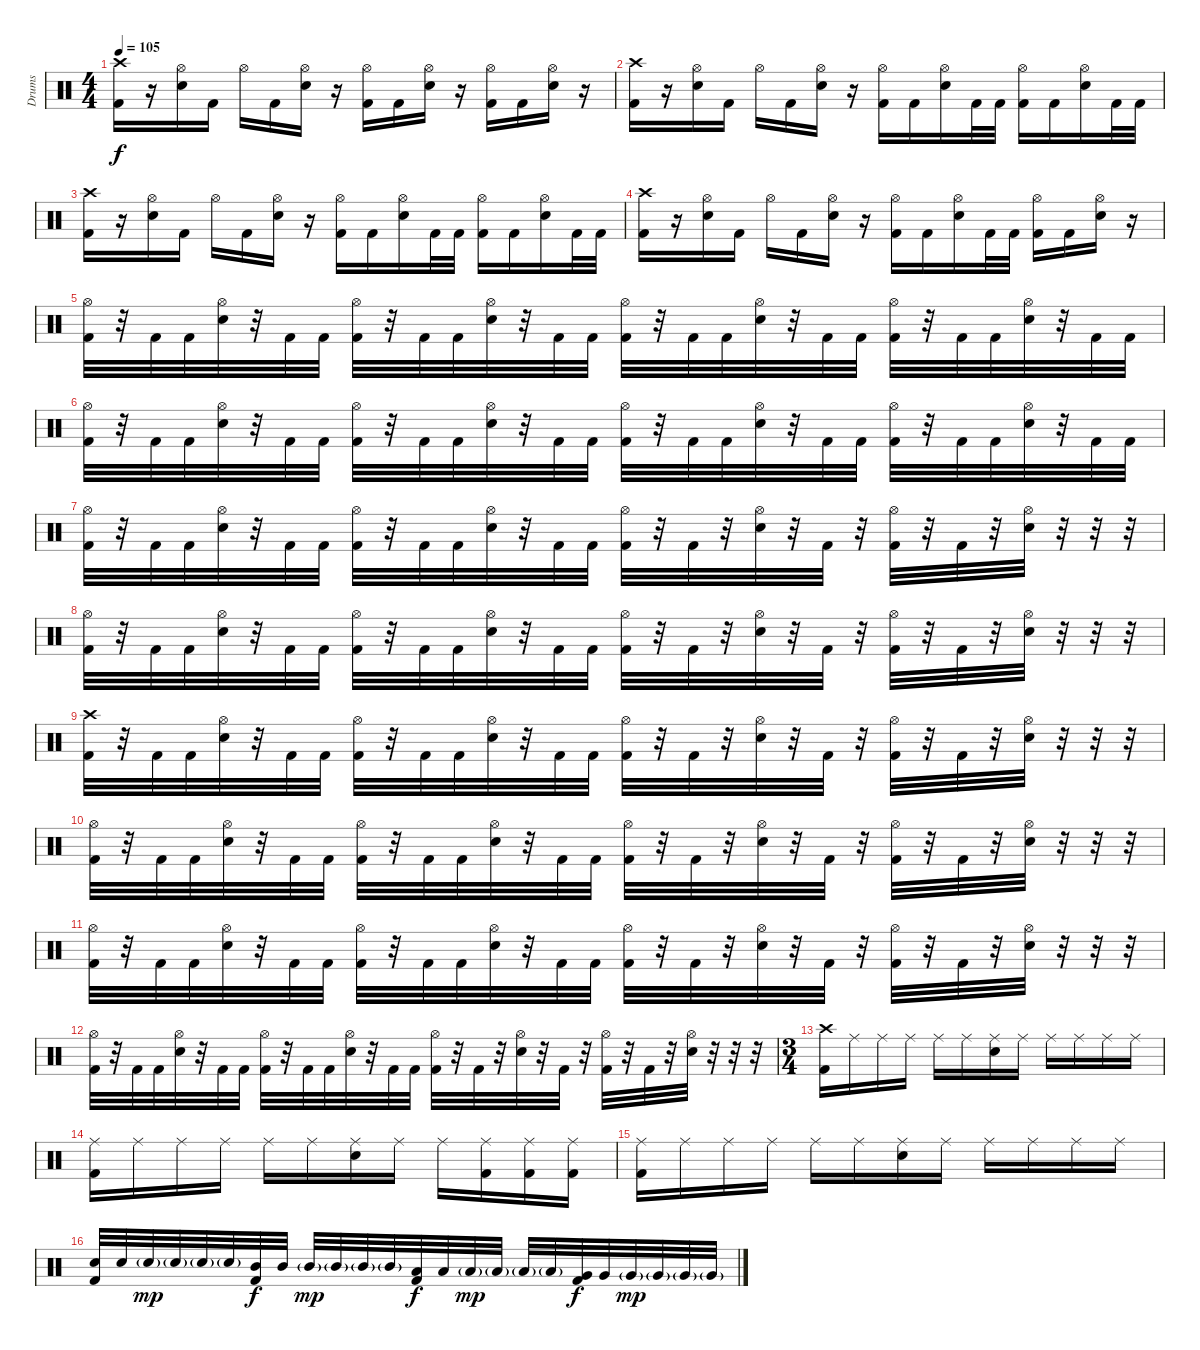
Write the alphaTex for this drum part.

\track ("Drums" "Drums") {instrument percussion}
\staff {score}
\articulation defaults
\ts (4 4)
\tempo 105
\clef neutral
\ks c
("Crash high (hit)" "Kick (hit) 2").16{dy f} r.16 ("Hi-Hat (open)" "Snare (hit) 2").16 "Kick (hit) 2".16 "Hi-Hat (open)".16 "Kick (hit) 2".16 ("Hi-Hat (open)" "Snare (hit) 2").16 r.16 ("Hi-Hat (open)" "Kick (hit) 2").16 "Kick (hit) 2".16 ("Hi-Hat (open)" "Snare (hit) 2").16 r.16 ("Hi-Hat (open)" "Kick (hit) 2").16 "Kick (hit) 2".16 ("Hi-Hat (open)" "Snare (hit) 2").16 r.16 |
("Crash high (hit)" "Kick (hit) 2").16 r.16 ("Hi-Hat (open)" "Snare (hit) 2").16 "Kick (hit) 2".16 "Hi-Hat (open)".16 "Kick (hit) 2".16 ("Hi-Hat (open)" "Snare (hit) 2").16 r.16 ("Hi-Hat (open)" "Kick (hit) 2").16 "Kick (hit) 2".16 ("Hi-Hat (open)" "Snare (hit) 2").16 "Kick (hit) 2".32 "Kick (hit) 2".32 ("Hi-Hat (open)" "Kick (hit) 2").16 "Kick (hit) 2".16 ("Hi-Hat (open)" "Snare (hit) 2").16 "Kick (hit) 2".32 "Kick (hit) 2".32 |
("Crash high (hit)" "Kick (hit) 2").16 r.16 ("Hi-Hat (open)" "Snare (hit) 2").16 "Kick (hit) 2".16 "Hi-Hat (open)".16 "Kick (hit) 2".16 ("Hi-Hat (open)" "Snare (hit) 2").16 r.16 ("Hi-Hat (open)" "Kick (hit) 2").16 "Kick (hit) 2".16 ("Hi-Hat (open)" "Snare (hit) 2").16 "Kick (hit) 2".32 "Kick (hit) 2".32 ("Hi-Hat (open)" "Kick (hit) 2").16 "Kick (hit) 2".16 ("Hi-Hat (open)" "Snare (hit) 2").16 "Kick (hit) 2".32 "Kick (hit) 2".32 |
("Crash high (hit)" "Kick (hit) 2").16 r.16 ("Hi-Hat (open)" "Snare (hit) 2").16 "Kick (hit) 2".16 "Hi-Hat (open)".16 "Kick (hit) 2".16 ("Hi-Hat (open)" "Snare (hit) 2").16 r.16 ("Hi-Hat (open)" "Kick (hit) 2").16 "Kick (hit) 2".16 ("Hi-Hat (open)" "Snare (hit) 2").16 "Kick (hit) 2".32 "Kick (hit) 2".32 ("Hi-Hat (open)" "Kick (hit) 2").16 "Kick (hit) 2".16 ("Hi-Hat (open)" "Snare (hit) 2").16 r.16 |
("Hi-Hat (open)" "Kick (hit) 2").32 r.32 "Kick (hit) 2".32 "Kick (hit) 2".32 ("Hi-Hat (open)" "Snare (hit) 2").32 r.32 "Kick (hit) 2".32 "Kick (hit) 2".32 ("Hi-Hat (open)" "Kick (hit) 2").32 r.32 "Kick (hit) 2".32 "Kick (hit) 2".32 ("Hi-Hat (open)" "Snare (hit) 2").32 r.32 "Kick (hit) 2".32 "Kick (hit) 2".32 ("Hi-Hat (open)" "Kick (hit) 2").32 r.32 "Kick (hit) 2".32 "Kick (hit) 2".32 ("Hi-Hat (open)" "Snare (hit) 2").32 r.32 "Kick (hit) 2".32 "Kick (hit) 2".32 ("Hi-Hat (open)" "Kick (hit) 2").32 r.32 "Kick (hit) 2".32 "Kick (hit) 2".32 ("Hi-Hat (open)" "Snare (hit) 2").32 r.32 "Kick (hit) 2".32 "Kick (hit) 2".32 |
("Hi-Hat (open)" "Kick (hit) 2").32 r.32 "Kick (hit) 2".32 "Kick (hit) 2".32 ("Hi-Hat (open)" "Snare (hit) 2").32 r.32 "Kick (hit) 2".32 "Kick (hit) 2".32 ("Hi-Hat (open)" "Kick (hit) 2").32 r.32 "Kick (hit) 2".32 "Kick (hit) 2".32 ("Hi-Hat (open)" "Snare (hit) 2").32 r.32 "Kick (hit) 2".32 "Kick (hit) 2".32 ("Hi-Hat (open)" "Kick (hit) 2").32 r.32 "Kick (hit) 2".32 "Kick (hit) 2".32 ("Hi-Hat (open)" "Snare (hit) 2").32 r.32 "Kick (hit) 2".32 "Kick (hit) 2".32 ("Hi-Hat (open)" "Kick (hit) 2").32 r.32 "Kick (hit) 2".32 "Kick (hit) 2".32 ("Hi-Hat (open)" "Snare (hit) 2").32 r.32 "Kick (hit) 2".32 "Kick (hit) 2".32 |
("Hi-Hat (open)" "Kick (hit) 2").32 r.32 "Kick (hit) 2".32 "Kick (hit) 2".32 ("Hi-Hat (open)" "Snare (hit) 2").32 r.32 "Kick (hit) 2".32 "Kick (hit) 2".32 ("Hi-Hat (open)" "Kick (hit) 2").32 r.32 "Kick (hit) 2".32 "Kick (hit) 2".32 ("Hi-Hat (open)" "Snare (hit) 2").32 r.32 "Kick (hit) 2".32 "Kick (hit) 2".32 ("Hi-Hat (open)" "Kick (hit) 2").32 r.32 "Kick (hit) 2".32 r.32 ("Hi-Hat (open)" "Snare (hit) 2").32 r.32 "Kick (hit) 2".32 r.32 ("Hi-Hat (open)" "Kick (hit) 2").32 r.32 "Kick (hit) 2".32 r.32 ("Hi-Hat (open)" "Snare (hit) 2").32 r.32 r.32 r.32 |
("Hi-Hat (open)" "Kick (hit) 2").32 r.32 "Kick (hit) 2".32 "Kick (hit) 2".32 ("Hi-Hat (open)" "Snare (hit) 2").32 r.32 "Kick (hit) 2".32 "Kick (hit) 2".32 ("Hi-Hat (open)" "Kick (hit) 2").32 r.32 "Kick (hit) 2".32 "Kick (hit) 2".32 ("Hi-Hat (open)" "Snare (hit) 2").32 r.32 "Kick (hit) 2".32 "Kick (hit) 2".32 ("Hi-Hat (open)" "Kick (hit) 2").32 r.32 "Kick (hit) 2".32 r.32 ("Hi-Hat (open)" "Snare (hit) 2").32 r.32 "Kick (hit) 2".32 r.32 ("Hi-Hat (open)" "Kick (hit) 2").32 r.32 "Kick (hit) 2".32 r.32 ("Hi-Hat (open)" "Snare (hit) 2").32 r.32 r.32 r.32 |
("Crash high (hit)" "Kick (hit) 2").32 r.32 "Kick (hit) 2".32 "Kick (hit) 2".32 ("Hi-Hat (open)" "Snare (hit) 2").32 r.32 "Kick (hit) 2".32 "Kick (hit) 2".32 ("Hi-Hat (open)" "Kick (hit) 2").32 r.32 "Kick (hit) 2".32 "Kick (hit) 2".32 ("Hi-Hat (open)" "Snare (hit) 2").32 r.32 "Kick (hit) 2".32 "Kick (hit) 2".32 ("Hi-Hat (open)" "Kick (hit) 2").32 r.32 "Kick (hit) 2".32 r.32 ("Hi-Hat (open)" "Snare (hit) 2").32 r.32 "Kick (hit) 2".32 r.32 ("Hi-Hat (open)" "Kick (hit) 2").32 r.32 "Kick (hit) 2".32 r.32 ("Hi-Hat (open)" "Snare (hit) 2").32 r.32 r.32 r.32 |
("Hi-Hat (open)" "Kick (hit) 2").32 r.32 "Kick (hit) 2".32 "Kick (hit) 2".32 ("Hi-Hat (open)" "Snare (hit) 2").32 r.32 "Kick (hit) 2".32 "Kick (hit) 2".32 ("Hi-Hat (open)" "Kick (hit) 2").32 r.32 "Kick (hit) 2".32 "Kick (hit) 2".32 ("Hi-Hat (open)" "Snare (hit) 2").32 r.32 "Kick (hit) 2".32 "Kick (hit) 2".32 ("Hi-Hat (open)" "Kick (hit) 2").32 r.32 "Kick (hit) 2".32 r.32 ("Hi-Hat (open)" "Snare (hit) 2").32 r.32 "Kick (hit) 2".32 r.32 ("Hi-Hat (open)" "Kick (hit) 2").32 r.32 "Kick (hit) 2".32 r.32 ("Hi-Hat (open)" "Snare (hit) 2").32 r.32 r.32 r.32 |
("Hi-Hat (open)" "Kick (hit) 2").32 r.32 "Kick (hit) 2".32 "Kick (hit) 2".32 ("Hi-Hat (open)" "Snare (hit) 2").32 r.32 "Kick (hit) 2".32 "Kick (hit) 2".32 ("Hi-Hat (open)" "Kick (hit) 2").32 r.32 "Kick (hit) 2".32 "Kick (hit) 2".32 ("Hi-Hat (open)" "Snare (hit) 2").32 r.32 "Kick (hit) 2".32 "Kick (hit) 2".32 ("Hi-Hat (open)" "Kick (hit) 2").32 r.32 "Kick (hit) 2".32 r.32 ("Hi-Hat (open)" "Snare (hit) 2").32 r.32 "Kick (hit) 2".32 r.32 ("Hi-Hat (open)" "Kick (hit) 2").32 r.32 "Kick (hit) 2".32 r.32 ("Hi-Hat (open)" "Snare (hit) 2").32 r.32 r.32 r.32 |
("Hi-Hat (open)" "Kick (hit) 2").32 r.32 "Kick (hit) 2".32 "Kick (hit) 2".32 ("Hi-Hat (open)" "Snare (hit) 2").32 r.32 "Kick (hit) 2".32 "Kick (hit) 2".32 ("Hi-Hat (open)" "Kick (hit) 2").32 r.32 "Kick (hit) 2".32 "Kick (hit) 2".32 ("Hi-Hat (open)" "Snare (hit) 2").32 r.32 "Kick (hit) 2".32 "Kick (hit) 2".32 ("Hi-Hat (open)" "Kick (hit) 2").32 r.32 "Kick (hit) 2".32 r.32 ("Hi-Hat (open)" "Snare (hit) 2").32 r.32 "Kick (hit) 2".32 r.32 ("Hi-Hat (open)" "Kick (hit) 2").32 r.32 "Kick (hit) 2".32 r.32 ("Hi-Hat (open)" "Snare (hit) 2").32 r.32 r.32 r.32 |
\ts (3 4)
("Crash high (hit)" "Kick (hit) 2").16 "Ride (middle)".16 "Ride (middle)".16 "Ride (middle)".16 "Ride (middle)".16 "Ride (middle)".16 ("Ride (middle)" "Snare (hit) 2").16 "Ride (middle)".16 "Ride (middle)".16 "Ride (middle)".16 "Ride (middle)".16 "Ride (middle)".16 |
("Ride (middle)" "Kick (hit) 2").16 "Ride (middle)".16 "Ride (middle)".16 "Ride (middle)".16 "Ride (middle)".16 "Ride (middle)".16 ("Ride (middle)" "Snare (hit) 2").16 "Ride (middle)".16 "Ride (middle)".16 ("Ride (middle)" "Kick (hit) 2").16 ("Ride (middle)" "Kick (hit) 2").16 ("Ride (middle)" "Kick (hit) 2").16 |
("Ride (middle)" "Kick (hit) 2").16 "Ride (middle)".16 "Ride (middle)".16 "Ride (middle)".16 "Ride (middle)".16 "Ride (middle)".16 ("Ride (middle)" "Snare (hit) 2").16 "Ride (middle)".16 "Ride (middle)".16 "Ride (middle)".16 "Ride (middle)".16 "Ride (middle)".16 |
("Snare (hit) 2" "Kick (hit) 2").32 "Snare (hit) 2".32 "Snare (hit) 2"{g}.32{dy mp} "Snare (hit) 2"{g}.32 "Snare (hit) 2"{g}.32 "Snare (hit) 2"{g}.32 ("Mid Tom (hit)" "Kick (hit) 2").32{dy f} "Mid Tom (hit)".32 "Mid Tom (hit)"{g}.32{dy mp} "Mid Tom (hit)"{g}.32 "Mid Tom (hit)"{g}.32 "Mid Tom (hit)"{g}.32 ("Low Tom (hit)" "Kick (hit) 2").32{dy f} "Low Tom (hit)".32 "Low Tom (hit)"{g}.32{dy mp} "Low Tom (hit)"{g}.32 "Low Tom (hit)"{g}.32 "Low Tom (hit)"{g}.32 ("Very Low Tom (hit)" "Kick (hit) 2").32{dy f} "Very Low Tom (hit)".32 "Very Low Tom (hit)"{g}.32{dy mp} "Very Low Tom (hit)"{g}.32 "Very Low Tom (hit)"{g}.32 "Very Low Tom (hit)"{g}.32
